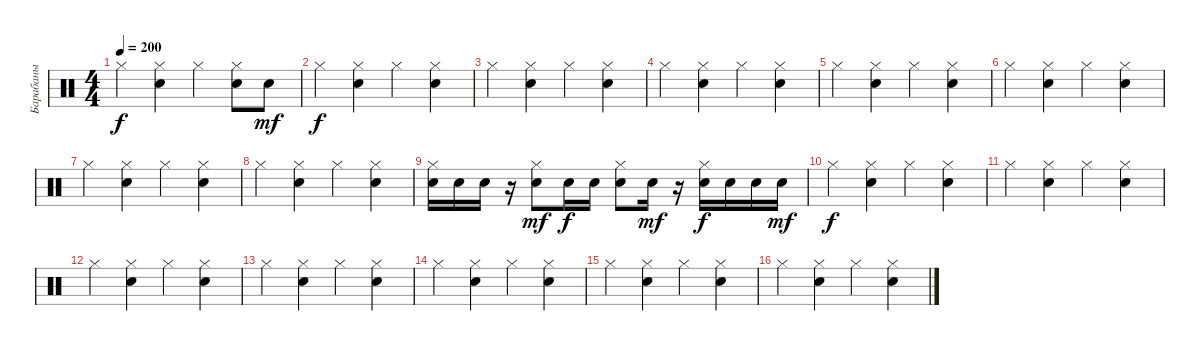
\track ("Барабаны" "Барабаны") {instrument percussion}
\staff {score}
\articulation defaults
\ts (4 4)
\tempo 200
\clef neutral
\ks c "Hi-Hat (closed)".4{dy f}
("Snare (hit) 2" "Hi-Hat (closed)").4 "Hi-Hat (closed)".4 ("Electric Snare (hit)" "Hi-Hat (closed)").8 "Electric Snare (hit)".8{dy mf} |
"Hi-Hat (closed)".4{dy f} ("Snare (hit) 2" "Hi-Hat (closed)").4 "Hi-Hat (closed)".4 ("Snare (hit) 2" "Hi-Hat (closed)").4 |
"Hi-Hat (closed)".4 ("Snare (hit) 2" "Hi-Hat (closed)").4 "Hi-Hat (closed)".4 ("Snare (hit) 2" "Hi-Hat (closed)").4 |
"Hi-Hat (closed)".4 ("Snare (hit) 2" "Hi-Hat (closed)").4 "Hi-Hat (closed)".4 ("Snare (hit) 2" "Hi-Hat (closed)").4 |
"Hi-Hat (closed)".4 ("Snare (hit) 2" "Hi-Hat (closed)").4 "Hi-Hat (closed)".4 ("Snare (hit) 2" "Hi-Hat (closed)").4 |
"Hi-Hat (closed)".4 ("Snare (hit) 2" "Hi-Hat (closed)").4 "Hi-Hat (closed)".4 ("Snare (hit) 2" "Hi-Hat (closed)").4 |
"Hi-Hat (closed)".4 ("Snare (hit) 2" "Hi-Hat (closed)").4 "Hi-Hat (closed)".4 ("Snare (hit) 2" "Hi-Hat (closed)").4 |
"Hi-Hat (closed)".4 ("Snare (hit) 2" "Hi-Hat (closed)").4 "Hi-Hat (closed)".4 ("Snare (hit) 2" "Hi-Hat (closed)").4 |
("Snare (hit) 2" "Hi-Hat (closed)").16 "Snare (hit) 2".16 "Snare (hit) 2".16 r.16 ("Snare (hit) 2" "Hi-Hat (closed)").8{dy mf} "Snare (hit) 2".16{dy f} "Snare (hit) 2".16 ("Snare (hit) 2" "Hi-Hat (closed)").8 "Snare (hit) 2".16{dy mf} r.16 ("Snare (hit) 2" "Hi-Hat (closed)").16{dy f} "Snare (hit) 2".16 "Snare (hit) 2".16 "Snare (hit) 2".16{dy mf} |
"Hi-Hat (closed)".4{dy f} ("Snare (hit) 2" "Hi-Hat (closed)").4 "Hi-Hat (closed)".4 ("Snare (hit) 2" "Hi-Hat (closed)").4 |
"Hi-Hat (closed)".4 ("Snare (hit) 2" "Hi-Hat (closed)").4 "Hi-Hat (closed)".4 ("Snare (hit) 2" "Hi-Hat (closed)").4 |
"Hi-Hat (closed)".4 ("Snare (hit) 2" "Hi-Hat (closed)").4 "Hi-Hat (closed)".4 ("Snare (hit) 2" "Hi-Hat (closed)").4 |
"Hi-Hat (closed)".4 ("Snare (hit) 2" "Hi-Hat (closed)").4 "Hi-Hat (closed)".4 ("Snare (hit) 2" "Hi-Hat (closed)").4 |
"Hi-Hat (closed)".4 ("Snare (hit) 2" "Hi-Hat (closed)").4 "Hi-Hat (closed)".4 ("Snare (hit) 2" "Hi-Hat (closed)").4 |
"Hi-Hat (closed)".4 ("Snare (hit) 2" "Hi-Hat (closed)").4 "Hi-Hat (closed)".4 ("Snare (hit) 2" "Hi-Hat (closed)").4 |
"Hi-Hat (closed)".4 ("Snare (hit) 2" "Hi-Hat (closed)").4 "Hi-Hat (closed)".4 ("Snare (hit) 2" "Hi-Hat (closed)").4
